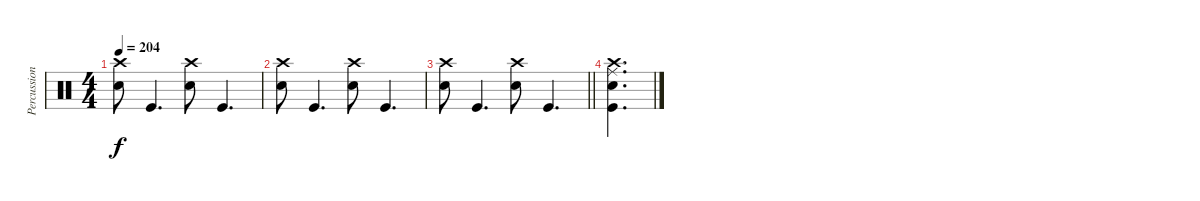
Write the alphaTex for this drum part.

\track ("Percussion" "Percussion") {instrument percussion}
\staff {score}
\articulation defaults
\ts (4 4)
\tempo 204
\clef neutral
\ks c
("Crash high (hit)" "Snare (hit) 2").8{dy f} "Kick (hit)".4{d} ("Crash high (hit)" "Snare (hit) 2").8 "Kick (hit)".4{d} |
("Crash high (hit)" "Snare (hit) 2").8 "Kick (hit)".4{d} ("Crash high (hit)" "Snare (hit) 2").8 "Kick (hit)".4{d} |
\barLineRight lightlight
("Crash high (hit)" "Snare (hit) 2").8 "Kick (hit)".4{d} ("Crash high (hit)" "Snare (hit) 2").8 "Kick (hit)".4{d} |
("Snare (hit) 2" "Kick (hit)" "Ride (middle)" "Crash high (hit)").4{d}
